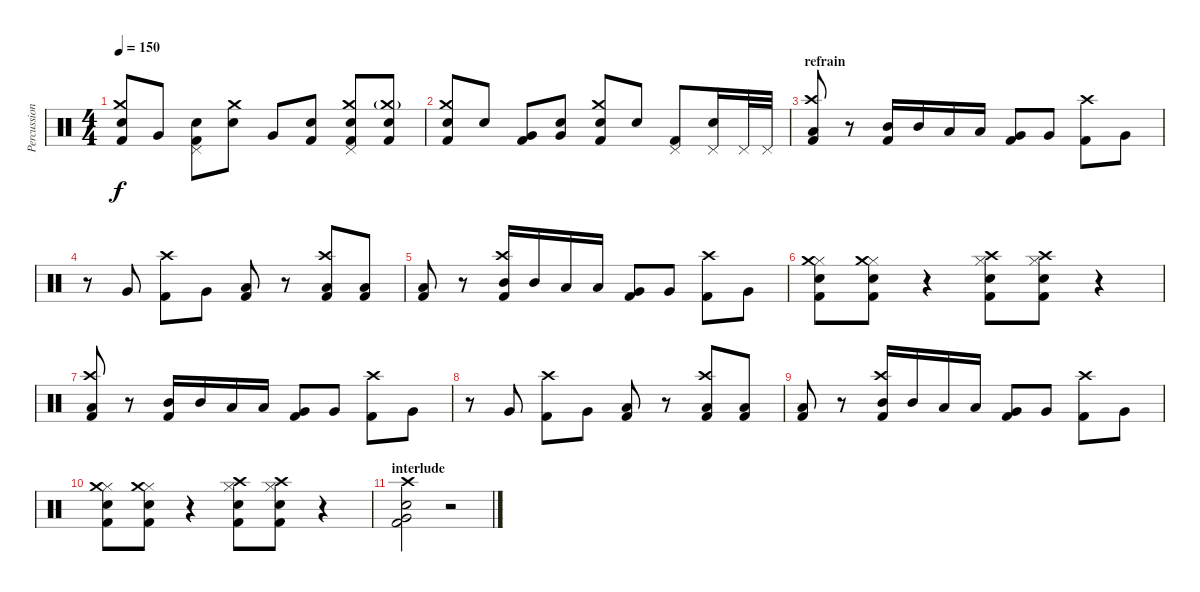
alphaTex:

\track ("Percussions" "Percussion") {instrument percussion}
\staff {score}
\articulation defaults
\ts (4 4)
\tempo 150
\clef neutral
\ks c
("Electric Snare (hit)" "Crash medium (hit)" "Kick (hit) 2").8{dy f} "Very Low Tom (hit)".8 ("Electric Snare (hit)" "Pedal Hi-Hat (hit)" "Kick (hit) 2").8 ("Electric Snare (hit)" "Crash medium (hit)").8 "Very Low Tom (hit)".8 ("Electric Snare (hit)" "Kick (hit) 2").8 ("Electric Snare (hit)" "Pedal Hi-Hat (hit)" "Crash medium (hit)" "Kick (hit) 2").8 ("Electric Snare (hit)" "Crash medium (hit)"{g} "Kick (hit) 2").8 |
("Electric Snare (hit)" "Crash medium (hit)" "Kick (hit) 2").8 "Electric Snare (hit)".8 ("Very Low Tom (hit)" "Kick (hit) 2").8 ("Very Low Tom (hit)" "Electric Snare (hit)").8 ("Crash medium (hit)" "Electric Snare (hit)" "Kick (hit) 2").8 "Electric Snare (hit)".8 ("Pedal Hi-Hat (hit)" "Kick (hit) 2").8 ("Pedal Hi-Hat (hit)" "Electric Snare (hit)").16 "Pedal Hi-Hat (hit)".32 "Pedal Hi-Hat (hit)".32 |
\section ("" "refrain")
("Crash high (hit)" "Low Floor Tom (hit)" "Kick (hit) 2").8 r.8 ("Mid Tom (hit)" "Kick (hit) 2").16 "Mid Tom (hit)".16 "Low Tom (hit)".16 "Low Tom (hit)".16 ("Very Low Tom (hit)" "Kick (hit) 2").8 "Very Low Tom (hit)".8 ("Crash high (hit)" "Kick (hit) 2").8 "Very Low Tom (hit)".8 |
r.8 "Very Low Tom (hit)".8 ("Crash high (hit)" "Kick (hit) 2").8 "Very Low Tom (hit)".8 ("Low Floor Tom (hit)" "Kick (hit) 2").8 r.8 ("Crash high (hit)" "Low Floor Tom (hit)" "Kick (hit) 2").8 ("Low Floor Tom (hit)" "Kick (hit) 2").8 |
("Low Floor Tom (hit)" "Kick (hit) 2").8 r.8 ("Crash high (hit)" "Mid Tom (hit)" "Kick (hit) 2").16 "Mid Tom (hit)".16 "Low Tom (hit)".16 "Low Tom (hit)".16 ("Very Low Tom (hit)" "Kick (hit) 2").8 "Very Low Tom (hit)".8 ("Crash high (hit)" "Kick (hit) 2").8 "Very Low Tom (hit)".8 |
("Hi-Hat (closed)" "Crash medium (hit)" "Electric Snare (hit)" "Kick (hit) 2").8 ("Hi-Hat (closed)" "Crash medium (hit)" "Electric Snare (hit)" "Kick (hit) 2").8 r.4 ("Hi-Hat (closed)" "Crash high (hit)" "Electric Snare (hit)" "Kick (hit) 2").8 ("Hi-Hat (closed)" "Crash high (hit)" "Electric Snare (hit)" "Kick (hit) 2").8 r.4 |
("Crash high (hit)" "Low Floor Tom (hit)" "Kick (hit) 2").8 r.8 ("Mid Tom (hit)" "Kick (hit) 2").16 "Mid Tom (hit)".16 "Low Tom (hit)".16 "Low Tom (hit)".16 ("Very Low Tom (hit)" "Kick (hit) 2").8 "Very Low Tom (hit)".8 ("Crash high (hit)" "Kick (hit) 2").8 "Very Low Tom (hit)".8 |
r.8 "Very Low Tom (hit)".8 ("Crash high (hit)" "Kick (hit) 2").8 "Very Low Tom (hit)".8 ("Low Floor Tom (hit)" "Kick (hit) 2").8 r.8 ("Crash high (hit)" "Low Floor Tom (hit)" "Kick (hit) 2").8 ("Low Floor Tom (hit)" "Kick (hit) 2").8 |
("Low Floor Tom (hit)" "Kick (hit) 2").8 r.8 ("Crash high (hit)" "Mid Tom (hit)" "Kick (hit) 2").16 "Mid Tom (hit)".16 "Low Tom (hit)".16 "Low Tom (hit)".16 ("Very Low Tom (hit)" "Kick (hit) 2").8 "Very Low Tom (hit)".8 ("Crash high (hit)" "Kick (hit) 2").8 "Very Low Tom (hit)".8 |
("Hi-Hat (closed)" "Crash medium (hit)" "Electric Snare (hit)" "Kick (hit) 2").8 ("Hi-Hat (closed)" "Crash medium (hit)" "Electric Snare (hit)" "Kick (hit) 2").8 r.4 ("Hi-Hat (closed)" "Crash high (hit)" "Electric Snare (hit)" "Kick (hit) 2").8 ("Hi-Hat (closed)" "Crash high (hit)" "Electric Snare (hit)" "Kick (hit) 2").8 r.4 |
\section ("" "interlude")
("Crash high (hit)" "Very Low Tom (hit)" "Electric Snare (hit)" "Kick (hit) 2").2 r.2
